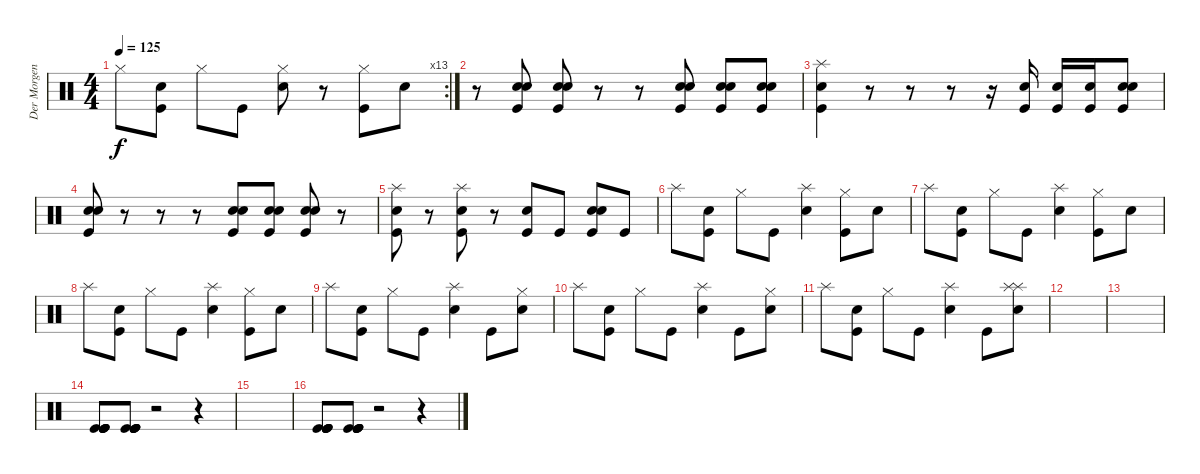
\track ("Der Morgenstern" "Der Morgen") {instrument percussion}
\staff {score}
\articulation defaults
\rc 13
\ts (4 4)
\tempo 125
\clef neutral
\ks c "Hi-Hat (closed)".8{dy f}
("Snare (hit) 2" "Kick (hit)").8 "Hi-Hat (closed)".8 "Kick (hit)".8 ("Hi-Hat (closed)" "Snare (hit) 2").8 r.8 ("Hi-Hat (closed)" "Kick (hit)").8 "Snare (hit) 2".8 |
r.8 ("Snare (hit) 2" "Snare (hit) 2" "Kick (hit)").8 ("Snare (hit) 2" "Snare (hit) 2" "Kick (hit)").8 r.8 r.8 ("Snare (hit) 2" "Snare (hit) 2" "Kick (hit)").8 ("Snare (hit) 2" "Snare (hit) 2" "Kick (hit)").8 ("Snare (hit) 2" "Snare (hit) 2" "Kick (hit)").8 |
("Splash (hit)" "Snare (hit) 2" "Kick (hit)").4 r.8 r.8 r.8 r.16 ("Snare (hit) 2" "Kick (hit)").16 ("Snare (hit) 2" "Kick (hit)").16 ("Snare (hit) 2" "Kick (hit)").16 ("Snare (hit) 2" "Snare (hit) 2" "Kick (hit)").8 |
("Snare (hit) 2" "Snare (hit) 2" "Kick (hit)").8 r.8 r.8 r.8 ("Snare (hit) 2" "Snare (hit) 2" "Kick (hit)").8 ("Snare (hit) 2" "Snare (hit) 2" "Kick (hit)").8 ("Snare (hit) 2" "Snare (hit) 2" "Kick (hit)").8 r.8 |
("Snare (hit) 2" "Splash (hit)" "Kick (hit)").8 r.8 ("Snare (hit) 2" "Splash (hit)" "Kick (hit)").8 r.8 ("Snare (hit) 2" "Kick (hit)").8 "Kick (hit)".8 ("Snare (hit) 2" "Snare (hit) 2" "Kick (hit)").8 "Kick (hit)".8 |
"Splash (hit)".8 ("Snare (hit) 2" "Kick (hit)").8 "Hi-Hat (closed)".8 "Kick (hit)".8 ("Splash (hit)" "Snare (hit) 2").4 ("Hi-Hat (closed)" "Kick (hit)").8 "Snare (hit) 2".8 |
"Splash (hit)".8 ("Snare (hit) 2" "Kick (hit)").8 "Hi-Hat (closed)".8 "Kick (hit)".8 ("Splash (hit)" "Snare (hit) 2").4 ("Hi-Hat (closed)" "Kick (hit)").8 "Snare (hit) 2".8 |
"Splash (hit)".8 ("Snare (hit) 2" "Kick (hit)").8 "Hi-Hat (closed)".8 "Kick (hit)".8 ("Splash (hit)" "Snare (hit) 2").4 ("Hi-Hat (closed)" "Kick (hit)").8 "Snare (hit) 2".8 |
"Splash (hit)".8 ("Snare (hit) 2" "Kick (hit)").8 "Hi-Hat (closed)".8 "Kick (hit)".8 ("Splash (hit)" "Snare (hit) 2").4 "Kick (hit)".8 ("Hi-Hat (closed)" "Snare (hit) 2").8 |
"Splash (hit)".8 ("Snare (hit) 2" "Kick (hit)").8 "Hi-Hat (closed)".8 "Kick (hit)".8 ("Splash (hit)" "Snare (hit) 2").4 "Kick (hit)".8 ("Hi-Hat (closed)" "Snare (hit) 2").8 |
"Splash (hit)".8 ("Snare (hit) 2" "Kick (hit)").8 "Hi-Hat (closed)".8 "Kick (hit)".8 ("Splash (hit)" "Snare (hit) 2").4 "Kick (hit)".8 ("Splash (hit)" "Snare (hit) 2" "Splash (hit)").8 |
|
|
("Kick (hit)" "Kick (hit)" "Kick (hit)" "Kick (hit)" "Kick (hit)").8 ("Kick (hit)" "Kick (hit)" "Kick (hit)" "Kick (hit)" "Kick (hit)").8 r.2 r.4 |
|
("Kick (hit)" "Kick (hit)" "Kick (hit)" "Kick (hit)" "Kick (hit)").8 ("Kick (hit)" "Kick (hit)" "Kick (hit)" "Kick (hit)" "Kick (hit)").8 r.2 r.4
